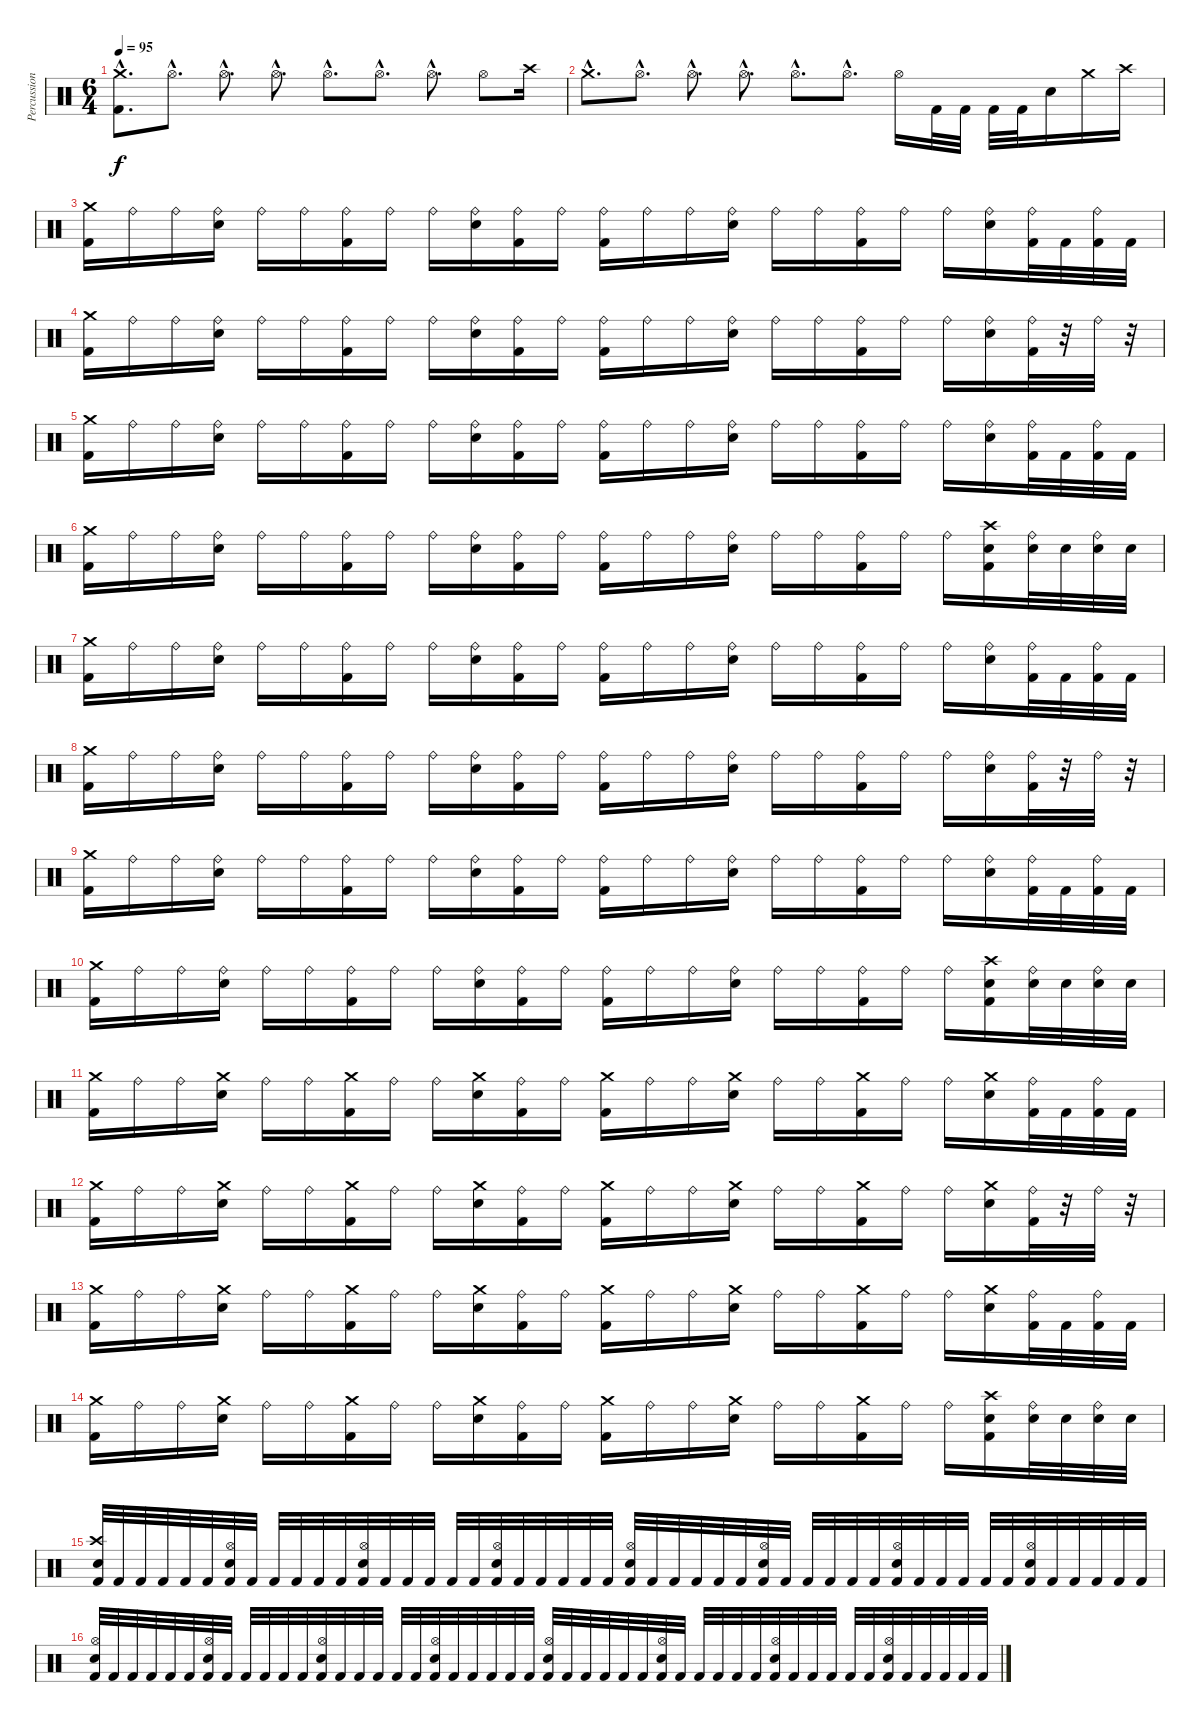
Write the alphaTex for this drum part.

\track ("Percussion" "Percussion") {instrument percussion}
\staff {score}
\articulation defaults
\ts (6 4)
\tempo 95
\clef neutral
\ks c
("Crash medium (hit)"{hac} "Kick (hit) 2"{hac}).8{d dy f} "Hi-Hat (open)"{hac}.8{d} "Hi-Hat (open)"{hac}.8{d} "Hi-Hat (open)"{hac}.8{d} "Hi-Hat (open)"{hac}.8{d} "Hi-Hat (open)"{hac}.8{d} "Hi-Hat (open)"{hac}.8{d} "Hi-Hat (open)".8 "Crash high (hit)".16 |
"Crash medium (hit)"{hac}.8{d} "Hi-Hat (open)"{hac}.8{d} "Hi-Hat (open)"{hac}.8{d} "Hi-Hat (open)"{hac}.8{d} "Hi-Hat (open)"{hac}.8{d} "Hi-Hat (open)"{hac}.8{d} "Hi-Hat (open)".16 "Kick (hit) 2".32 "Kick (hit) 2".32 "Kick (hit) 2".32 "Kick (hit) 2".32 "Electric Snare (hit)".16 "Crash medium (hit)".16 "Crash high (hit)".16 |
("Crash medium (hit)" "Kick (hit) 2").16 "Ride (bell)".16 "Ride (bell)".16 ("Ride (bell)" "Electric Snare (hit)").16 "Ride (bell)".16 "Ride (bell)".16 ("Ride (bell)" "Kick (hit) 2").16 "Ride (bell)".16 "Ride (bell)".16 ("Ride (bell)" "Electric Snare (hit)").16 ("Ride (bell)" "Kick (hit) 2").16 "Ride (bell)".16 ("Ride (bell)" "Kick (hit) 2").16 "Ride (bell)".16 "Ride (bell)".16 ("Ride (bell)" "Electric Snare (hit)").16 "Ride (bell)".16 "Ride (bell)".16 ("Ride (bell)" "Kick (hit) 2").16 "Ride (bell)".16 "Ride (bell)".16 ("Ride (bell)" "Electric Snare (hit)").16 ("Ride (bell)" "Kick (hit) 2").32 "Kick (hit) 2".32 ("Ride (bell)" "Kick (hit) 2").32 "Kick (hit) 2".32 |
("Crash medium (hit)" "Kick (hit) 2").16 "Ride (bell)".16 "Ride (bell)".16 ("Ride (bell)" "Electric Snare (hit)").16 "Ride (bell)".16 "Ride (bell)".16 ("Ride (bell)" "Kick (hit) 2").16 "Ride (bell)".16 "Ride (bell)".16 ("Ride (bell)" "Electric Snare (hit)").16 ("Ride (bell)" "Kick (hit) 2").16 "Ride (bell)".16 ("Ride (bell)" "Kick (hit) 2").16 "Ride (bell)".16 "Ride (bell)".16 ("Ride (bell)" "Electric Snare (hit)").16 "Ride (bell)".16 "Ride (bell)".16 ("Ride (bell)" "Kick (hit) 2").16 "Ride (bell)".16 "Ride (bell)".16 ("Ride (bell)" "Electric Snare (hit)").16 ("Ride (bell)" "Kick (hit) 2").32 r.32 "Ride (bell)".32 r.32 |
("Crash medium (hit)" "Kick (hit) 2").16 "Ride (bell)".16 "Ride (bell)".16 ("Ride (bell)" "Electric Snare (hit)").16 "Ride (bell)".16 "Ride (bell)".16 ("Ride (bell)" "Kick (hit) 2").16 "Ride (bell)".16 "Ride (bell)".16 ("Ride (bell)" "Electric Snare (hit)").16 ("Ride (bell)" "Kick (hit) 2").16 "Ride (bell)".16 ("Ride (bell)" "Kick (hit) 2").16 "Ride (bell)".16 "Ride (bell)".16 ("Ride (bell)" "Electric Snare (hit)").16 "Ride (bell)".16 "Ride (bell)".16 ("Ride (bell)" "Kick (hit) 2").16 "Ride (bell)".16 "Ride (bell)".16 ("Ride (bell)" "Electric Snare (hit)").16 ("Ride (bell)" "Kick (hit) 2").32 "Kick (hit) 2".32 ("Ride (bell)" "Kick (hit) 2").32 "Kick (hit) 2".32 |
("Crash medium (hit)" "Kick (hit) 2").16 "Ride (bell)".16 "Ride (bell)".16 ("Ride (bell)" "Electric Snare (hit)").16 "Ride (bell)".16 "Ride (bell)".16 ("Ride (bell)" "Kick (hit) 2").16 "Ride (bell)".16 "Ride (bell)".16 ("Ride (bell)" "Electric Snare (hit)").16 ("Ride (bell)" "Kick (hit) 2").16 "Ride (bell)".16 ("Ride (bell)" "Kick (hit) 2").16 "Ride (bell)".16 "Ride (bell)".16 ("Ride (bell)" "Electric Snare (hit)").16 "Ride (bell)".16 "Ride (bell)".16 ("Ride (bell)" "Kick (hit) 2").16 "Ride (bell)".16 "Ride (bell)".16 ("Crash high (hit)" "Electric Snare (hit)" "Kick (hit) 2").16 ("Ride (bell)" "Electric Snare (hit)").32 "Electric Snare (hit)".32 ("Ride (bell)" "Electric Snare (hit)").32 "Electric Snare (hit)".32 |
("Crash medium (hit)" "Kick (hit) 2").16 "Ride (bell)".16 "Ride (bell)".16 ("Ride (bell)" "Electric Snare (hit)").16 "Ride (bell)".16 "Ride (bell)".16 ("Ride (bell)" "Kick (hit) 2").16 "Ride (bell)".16 "Ride (bell)".16 ("Ride (bell)" "Electric Snare (hit)").16 ("Ride (bell)" "Kick (hit) 2").16 "Ride (bell)".16 ("Ride (bell)" "Kick (hit) 2").16 "Ride (bell)".16 "Ride (bell)".16 ("Ride (bell)" "Electric Snare (hit)").16 "Ride (bell)".16 "Ride (bell)".16 ("Ride (bell)" "Kick (hit) 2").16 "Ride (bell)".16 "Ride (bell)".16 ("Ride (bell)" "Electric Snare (hit)").16 ("Ride (bell)" "Kick (hit) 2").32 "Kick (hit) 2".32 ("Ride (bell)" "Kick (hit) 2").32 "Kick (hit) 2".32 |
("Crash medium (hit)" "Kick (hit) 2").16 "Ride (bell)".16 "Ride (bell)".16 ("Ride (bell)" "Electric Snare (hit)").16 "Ride (bell)".16 "Ride (bell)".16 ("Ride (bell)" "Kick (hit) 2").16 "Ride (bell)".16 "Ride (bell)".16 ("Ride (bell)" "Electric Snare (hit)").16 ("Ride (bell)" "Kick (hit) 2").16 "Ride (bell)".16 ("Ride (bell)" "Kick (hit) 2").16 "Ride (bell)".16 "Ride (bell)".16 ("Ride (bell)" "Electric Snare (hit)").16 "Ride (bell)".16 "Ride (bell)".16 ("Ride (bell)" "Kick (hit) 2").16 "Ride (bell)".16 "Ride (bell)".16 ("Ride (bell)" "Electric Snare (hit)").16 ("Ride (bell)" "Kick (hit) 2").32 r.32 "Ride (bell)".32 r.32 |
("Crash medium (hit)" "Kick (hit) 2").16 "Ride (bell)".16 "Ride (bell)".16 ("Ride (bell)" "Electric Snare (hit)").16 "Ride (bell)".16 "Ride (bell)".16 ("Ride (bell)" "Kick (hit) 2").16 "Ride (bell)".16 "Ride (bell)".16 ("Ride (bell)" "Electric Snare (hit)").16 ("Ride (bell)" "Kick (hit) 2").16 "Ride (bell)".16 ("Ride (bell)" "Kick (hit) 2").16 "Ride (bell)".16 "Ride (bell)".16 ("Ride (bell)" "Electric Snare (hit)").16 "Ride (bell)".16 "Ride (bell)".16 ("Ride (bell)" "Kick (hit) 2").16 "Ride (bell)".16 "Ride (bell)".16 ("Ride (bell)" "Electric Snare (hit)").16 ("Ride (bell)" "Kick (hit) 2").32 "Kick (hit) 2".32 ("Ride (bell)" "Kick (hit) 2").32 "Kick (hit) 2".32 |
("Crash medium (hit)" "Kick (hit) 2").16 "Ride (bell)".16 "Ride (bell)".16 ("Ride (bell)" "Electric Snare (hit)").16 "Ride (bell)".16 "Ride (bell)".16 ("Ride (bell)" "Kick (hit) 2").16 "Ride (bell)".16 "Ride (bell)".16 ("Ride (bell)" "Electric Snare (hit)").16 ("Ride (bell)" "Kick (hit) 2").16 "Ride (bell)".16 ("Ride (bell)" "Kick (hit) 2").16 "Ride (bell)".16 "Ride (bell)".16 ("Ride (bell)" "Electric Snare (hit)").16 "Ride (bell)".16 "Ride (bell)".16 ("Ride (bell)" "Kick (hit) 2").16 "Ride (bell)".16 "Ride (bell)".16 ("Crash high (hit)" "Electric Snare (hit)" "Kick (hit) 2").16 ("Ride (bell)" "Electric Snare (hit)").32 "Electric Snare (hit)".32 ("Ride (bell)" "Electric Snare (hit)").32 "Electric Snare (hit)".32 |
("Crash medium (hit)" "Kick (hit) 2").16 "Ride (bell)".16 "Ride (bell)".16 ("Crash medium (hit)" "Electric Snare (hit)").16 "Ride (bell)".16 "Ride (bell)".16 ("Crash medium (hit)" "Kick (hit) 2").16 "Ride (bell)".16 "Ride (bell)".16 ("Crash medium (hit)" "Electric Snare (hit)").16 ("Ride (bell)" "Kick (hit) 2").16 "Ride (bell)".16 ("Crash medium (hit)" "Kick (hit) 2").16 "Ride (bell)".16 "Ride (bell)".16 ("Crash medium (hit)" "Electric Snare (hit)").16 "Ride (bell)".16 "Ride (bell)".16 ("Crash medium (hit)" "Kick (hit) 2").16 "Ride (bell)".16 "Ride (bell)".16 ("Crash medium (hit)" "Electric Snare (hit)").16 ("Ride (bell)" "Kick (hit) 2").32 "Kick (hit) 2".32 ("Ride (bell)" "Kick (hit) 2").32 "Kick (hit) 2".32 |
("Crash medium (hit)" "Kick (hit) 2").16 "Ride (bell)".16 "Ride (bell)".16 ("Crash medium (hit)" "Electric Snare (hit)").16 "Ride (bell)".16 "Ride (bell)".16 ("Crash medium (hit)" "Kick (hit) 2").16 "Ride (bell)".16 "Ride (bell)".16 ("Crash medium (hit)" "Electric Snare (hit)").16 ("Ride (bell)" "Kick (hit) 2").16 "Ride (bell)".16 ("Crash medium (hit)" "Kick (hit) 2").16 "Ride (bell)".16 "Ride (bell)".16 ("Crash medium (hit)" "Electric Snare (hit)").16 "Ride (bell)".16 "Ride (bell)".16 ("Crash medium (hit)" "Kick (hit) 2").16 "Ride (bell)".16 "Ride (bell)".16 ("Crash medium (hit)" "Electric Snare (hit)").16 ("Ride (bell)" "Kick (hit) 2").32 r.32 "Ride (bell)".32 r.32 |
("Crash medium (hit)" "Kick (hit) 2").16 "Ride (bell)".16 "Ride (bell)".16 ("Crash medium (hit)" "Electric Snare (hit)").16 "Ride (bell)".16 "Ride (bell)".16 ("Crash medium (hit)" "Kick (hit) 2").16 "Ride (bell)".16 "Ride (bell)".16 ("Crash medium (hit)" "Electric Snare (hit)").16 ("Ride (bell)" "Kick (hit) 2").16 "Ride (bell)".16 ("Crash medium (hit)" "Kick (hit) 2").16 "Ride (bell)".16 "Ride (bell)".16 ("Crash medium (hit)" "Electric Snare (hit)").16 "Ride (bell)".16 "Ride (bell)".16 ("Crash medium (hit)" "Kick (hit) 2").16 "Ride (bell)".16 "Ride (bell)".16 ("Crash medium (hit)" "Electric Snare (hit)").16 ("Ride (bell)" "Kick (hit) 2").32 "Kick (hit) 2".32 ("Ride (bell)" "Kick (hit) 2").32 "Kick (hit) 2".32 |
("Crash medium (hit)" "Kick (hit) 2").16 "Ride (bell)".16 "Ride (bell)".16 ("Crash medium (hit)" "Electric Snare (hit)").16 "Ride (bell)".16 "Ride (bell)".16 ("Crash medium (hit)" "Kick (hit) 2").16 "Ride (bell)".16 "Ride (bell)".16 ("Crash medium (hit)" "Electric Snare (hit)").16 ("Ride (bell)" "Kick (hit) 2").16 "Ride (bell)".16 ("Crash medium (hit)" "Kick (hit) 2").16 "Ride (bell)".16 "Ride (bell)".16 ("Crash medium (hit)" "Electric Snare (hit)").16 "Ride (bell)".16 "Ride (bell)".16 ("Crash medium (hit)" "Kick (hit) 2").16 "Ride (bell)".16 "Ride (bell)".16 ("Crash high (hit)" "Electric Snare (hit)" "Kick (hit) 2").16 ("Ride (bell)" "Electric Snare (hit)").32 "Electric Snare (hit)".32 ("Ride (bell)" "Electric Snare (hit)").32 "Electric Snare (hit)".32 |
("Crash high (hit)" "Electric Snare (hit)" "Kick (hit) 2").32 "Kick (hit) 2".32 "Kick (hit) 2".32 "Kick (hit) 2".32 "Kick (hit) 2".32 "Kick (hit) 2".32 ("Hi-Hat (open)" "Electric Snare (hit)" "Kick (hit) 2").32 "Kick (hit) 2".32 "Kick (hit) 2".32 "Kick (hit) 2".32 "Kick (hit) 2".32 "Kick (hit) 2".32 ("Hi-Hat (open)" "Electric Snare (hit)" "Kick (hit) 2").32 "Kick (hit) 2".32 "Kick (hit) 2".32 "Kick (hit) 2".32 "Kick (hit) 2".32 "Kick (hit) 2".32 ("Hi-Hat (open)" "Electric Snare (hit)" "Kick (hit) 2").32 "Kick (hit) 2".32 "Kick (hit) 2".32 "Kick (hit) 2".32 "Kick (hit) 2".32 "Kick (hit) 2".32 ("Hi-Hat (open)" "Electric Snare (hit)" "Kick (hit) 2").32 "Kick (hit) 2".32 "Kick (hit) 2".32 "Kick (hit) 2".32 "Kick (hit) 2".32 "Kick (hit) 2".32 ("Hi-Hat (open)" "Electric Snare (hit)" "Kick (hit) 2").32 "Kick (hit) 2".32 "Kick (hit) 2".32 "Kick (hit) 2".32 "Kick (hit) 2".32 "Kick (hit) 2".32 ("Hi-Hat (open)" "Electric Snare (hit)" "Kick (hit) 2").32 "Kick (hit) 2".32 "Kick (hit) 2".32 "Kick (hit) 2".32 "Kick (hit) 2".32 "Kick (hit) 2".32 ("Hi-Hat (open)" "Electric Snare (hit)" "Kick (hit) 2").32 "Kick (hit) 2".32 "Kick (hit) 2".32 "Kick (hit) 2".32 "Kick (hit) 2".32 "Kick (hit) 2".32 |
("Hi-Hat (open)" "Electric Snare (hit)" "Kick (hit) 2").32 "Kick (hit) 2".32 "Kick (hit) 2".32 "Kick (hit) 2".32 "Kick (hit) 2".32 "Kick (hit) 2".32 ("Hi-Hat (open)" "Electric Snare (hit)" "Kick (hit) 2").32 "Kick (hit) 2".32 "Kick (hit) 2".32 "Kick (hit) 2".32 "Kick (hit) 2".32 "Kick (hit) 2".32 ("Hi-Hat (open)" "Electric Snare (hit)" "Kick (hit) 2").32 "Kick (hit) 2".32 "Kick (hit) 2".32 "Kick (hit) 2".32 "Kick (hit) 2".32 "Kick (hit) 2".32 ("Hi-Hat (open)" "Electric Snare (hit)" "Kick (hit) 2").32 "Kick (hit) 2".32 "Kick (hit) 2".32 "Kick (hit) 2".32 "Kick (hit) 2".32 "Kick (hit) 2".32 ("Hi-Hat (open)" "Electric Snare (hit)" "Kick (hit) 2").32 "Kick (hit) 2".32 "Kick (hit) 2".32 "Kick (hit) 2".32 "Kick (hit) 2".32 "Kick (hit) 2".32 ("Hi-Hat (open)" "Electric Snare (hit)" "Kick (hit) 2").32 "Kick (hit) 2".32 "Kick (hit) 2".32 "Kick (hit) 2".32 "Kick (hit) 2".32 "Kick (hit) 2".32 ("Hi-Hat (open)" "Electric Snare (hit)" "Kick (hit) 2").32 "Kick (hit) 2".32 "Kick (hit) 2".32 "Kick (hit) 2".32 "Kick (hit) 2".32 "Kick (hit) 2".32 ("Hi-Hat (open)" "Electric Snare (hit)" "Kick (hit) 2").32 "Kick (hit) 2".32 "Kick (hit) 2".32 "Kick (hit) 2".32 "Kick (hit) 2".32 "Kick (hit) 2".32
